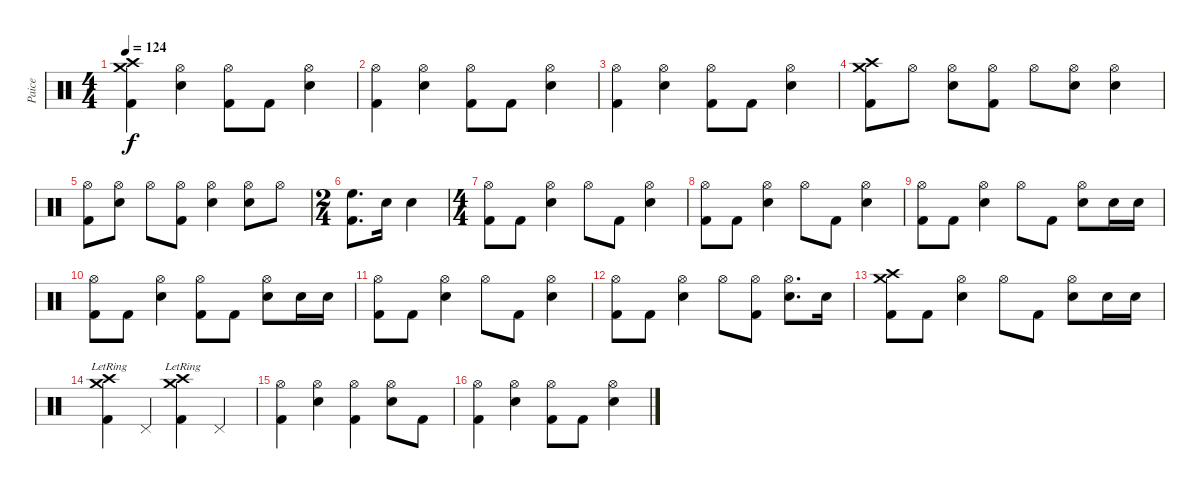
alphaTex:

\track ("Paice" "Paice") {instrument percussion}
\staff {score}
\articulation defaults
\ts (4 4)
\tempo 124
\clef neutral
\ks c
("Crash high (hit)" "Crash medium (hit)" "Kick (hit) 2").4{dy f} ("Hi-Hat (open)" "Electric Snare (hit)").4 ("Hi-Hat (open)" "Kick (hit) 2").8 "Kick (hit) 2".8 ("Hi-Hat (open)" "Electric Snare (hit)").4 |
("Hi-Hat (open)" "Kick (hit) 2").4 ("Hi-Hat (open)" "Electric Snare (hit)").4 ("Hi-Hat (open)" "Kick (hit) 2").8 "Kick (hit) 2".8 ("Hi-Hat (open)" "Electric Snare (hit)").4 |
("Hi-Hat (open)" "Kick (hit) 2").4 ("Hi-Hat (open)" "Electric Snare (hit)").4 ("Hi-Hat (open)" "Kick (hit) 2").8 "Kick (hit) 2".8 ("Hi-Hat (open)" "Electric Snare (hit)").4 |
("Crash high (hit)" "Crash medium (hit)" "Kick (hit) 2").8 "Hi-Hat (open)".8 ("Hi-Hat (open)" "Electric Snare (hit)").8 ("Hi-Hat (open)" "Kick (hit) 2").8 "Hi-Hat (open)".8 ("Hi-Hat (open)" "Electric Snare (hit)").8 ("Hi-Hat (open)" "Electric Snare (hit)").4 |
("Hi-Hat (open)" "Kick (hit) 2").8 ("Hi-Hat (open)" "Electric Snare (hit)").8 "Hi-Hat (open)".8 ("Hi-Hat (open)" "Kick (hit) 2").8 ("Hi-Hat (open)" "Electric Snare (hit)").4 ("Hi-Hat (open)" "Electric Snare (hit)").8 "Hi-Hat (open)".8 |
\ts (2 4)
("High Floor Tom (hit)" "Kick (hit) 2").8{d} "Electric Snare (hit)".16 "Electric Snare (hit)".4 |
\ts (4 4)
("Hi-Hat (open)" "Kick (hit) 2").8 "Kick (hit) 2".8 ("Hi-Hat (open)" "Electric Snare (hit)").4 "Hi-Hat (open)".8 "Kick (hit) 2".8 ("Hi-Hat (open)" "Electric Snare (hit)").4 |
("Hi-Hat (open)" "Kick (hit) 2").8 "Kick (hit) 2".8 ("Hi-Hat (open)" "Electric Snare (hit)").4 "Hi-Hat (open)".8 "Kick (hit) 2".8 ("Hi-Hat (open)" "Electric Snare (hit)").4 |
("Hi-Hat (open)" "Kick (hit) 2").8 "Kick (hit) 2".8 ("Hi-Hat (open)" "Electric Snare (hit)").4 "Hi-Hat (open)".8 "Kick (hit) 2".8 ("Hi-Hat (open)" "Electric Snare (hit)").8 "Electric Snare (hit)".16 "Electric Snare (hit)".16 |
("Hi-Hat (open)" "Kick (hit) 2").8 "Kick (hit) 2".8 ("Hi-Hat (open)" "Electric Snare (hit)").4 ("Hi-Hat (open)" "Kick (hit) 2").8 "Kick (hit) 2".8 ("Hi-Hat (open)" "Electric Snare (hit)").8 "Electric Snare (hit)".16 "Electric Snare (hit)".16 |
("Hi-Hat (open)" "Kick (hit) 2").8 "Kick (hit) 2".8 ("Hi-Hat (open)" "Electric Snare (hit)").4 "Hi-Hat (open)".8 "Kick (hit) 2".8 ("Hi-Hat (open)" "Electric Snare (hit)").4 |
("Hi-Hat (open)" "Kick (hit) 2").8 "Kick (hit) 2".8 ("Hi-Hat (open)" "Electric Snare (hit)").4 "Hi-Hat (open)".8 ("Hi-Hat (open)" "Kick (hit) 2").8 ("Hi-Hat (open)" "Electric Snare (hit)").8{d} "Electric Snare (hit)".16 |
("Crash high (hit)" "Crash medium (hit)" "Kick (hit) 2").8 "Kick (hit) 2".8 ("Hi-Hat (open)" "Electric Snare (hit)").4 "Hi-Hat (open)".8 "Kick (hit) 2".8 ("Hi-Hat (open)" "Electric Snare (hit)").8 "Electric Snare (hit)".16 "Electric Snare (hit)".16 |
("Crash high (hit)"{lr} "Crash medium (hit)"{lr} "Kick (hit) 2").4 "Pedal Hi-Hat (hit)".4 ("Crash high (hit)"{lr} "Crash medium (hit)"{lr} "Kick (hit) 2").4 "Pedal Hi-Hat (hit)".4 |
("Hi-Hat (open)" "Kick (hit) 2").4 ("Hi-Hat (open)" "Electric Snare (hit)").4 ("Hi-Hat (open)" "Kick (hit) 2").4 ("Hi-Hat (open)" "Electric Snare (hit)").8 "Kick (hit) 2".8 |
("Hi-Hat (open)" "Kick (hit) 2").4 ("Hi-Hat (open)" "Electric Snare (hit)").4 ("Hi-Hat (open)" "Kick (hit) 2").8 "Kick (hit) 2".8 ("Hi-Hat (open)" "Electric Snare (hit)").4
